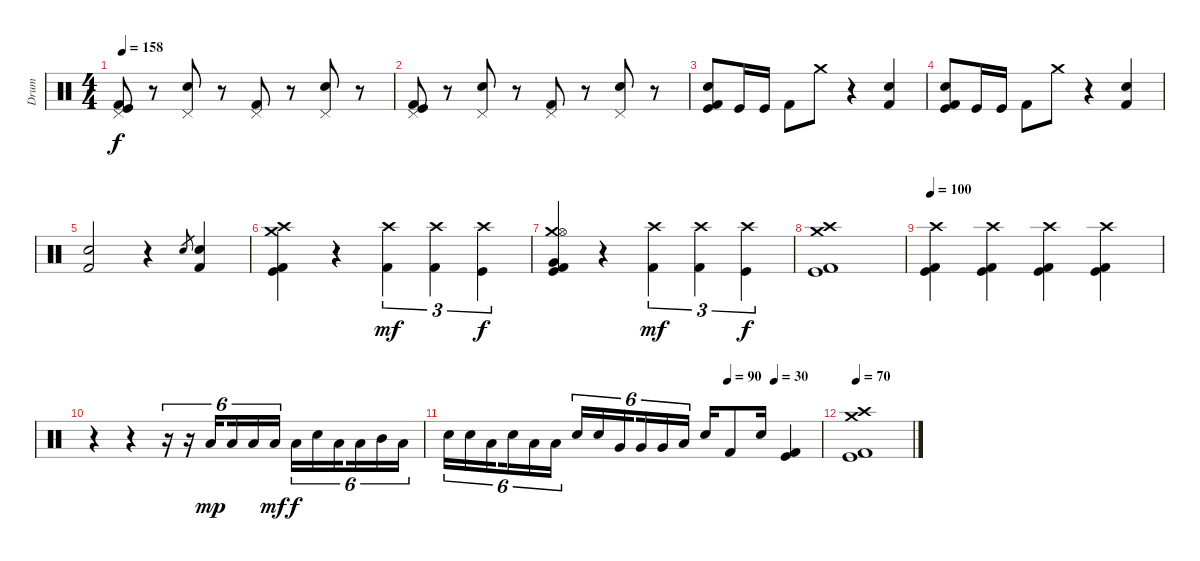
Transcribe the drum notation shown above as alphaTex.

\track ("Drum" "Drum") {instrument percussion}
\staff {score}
\articulation defaults
\ts (4 4)
\tempo 158
\clef neutral
\ks c
("Pedal Hi-Hat (hit)" "Kick (hit) 2" "Kick (hit)").8{dy f} r.8 ("Electric Snare (hit)" "Pedal Hi-Hat (hit)").8 r.8 ("Pedal Hi-Hat (hit)" "Kick (hit) 2").8 r.8 ("Electric Snare (hit)" "Pedal Hi-Hat (hit)").8 r.8 |
("Pedal Hi-Hat (hit)" "Kick (hit) 2" "Kick (hit)").8 r.8 ("Electric Snare (hit)" "Pedal Hi-Hat (hit)").8 r.8 ("Pedal Hi-Hat (hit)" "Kick (hit) 2").8 r.8 ("Electric Snare (hit)" "Pedal Hi-Hat (hit)").8 r.8 |
("Electric Snare (hit)" "Kick (hit) 2" "Kick (hit)").8 "Kick (hit)".16 "Kick (hit)".16 "Kick (hit) 2".8 "Crash medium (hit)".8 r.4 ("Kick (hit) 2" "Electric Snare (hit)").4 |
("Electric Snare (hit)" "Kick (hit) 2" "Kick (hit)").8 "Kick (hit)".16 "Kick (hit)".16 "Kick (hit) 2".8 "Crash medium (hit)".8 r.4 ("Kick (hit) 2" "Electric Snare (hit)").4 |
("Kick (hit) 2" "Electric Snare (hit)").2 r.4 "Electric Snare (hit)".8{gr} ("Kick (hit) 2" "Electric Snare (hit)").4 |
("Crash high (hit)" "Crash medium (hit)" "Kick (hit) 2" "Kick (hit)").4 r.4 ("Crash high (hit)" "Kick (hit) 2").4{tu (3 2) dy mf} ("Crash high (hit)" "Kick (hit) 2").4{tu (3 2)} ("Crash high (hit)" "Kick (hit)").4{tu (3 2) dy f} |
("Crash medium (hit)" "Hi-Hat (open)" "Very Low Tom (hit)" "Kick (hit)" "Kick (hit) 2").4 r.4 ("Crash high (hit)" "Kick (hit) 2").4{tu (3 2) dy mf} ("Crash high (hit)" "Kick (hit) 2").4{tu (3 2)} ("Crash high (hit)" "Kick (hit)").4{tu (3 2) dy f} |
("Crash high (hit)" "Crash medium (hit)" "Kick (hit) 2" "Kick (hit)").1 |
\tempo 100
("Crash high (hit)" "Kick (hit) 2" "Kick (hit)").4 ("Crash high (hit)" "Kick (hit) 2" "Kick (hit)").4 ("Crash high (hit)" "Kick (hit) 2" "Kick (hit)").4 ("Crash high (hit)" "Kick (hit) 2" "Kick (hit)").4 |
r.4 r.4 r.16{tu (6 4)} r.16{tu (6 4)} "Low Tom (hit)".16{tu (6 4) dy mp beam splitsecondary} "Low Tom (hit)".16{tu (6 4)} "Low Tom (hit)".16{tu (6 4)} "Low Tom (hit)".16{tu (6 4) dy mf} "Low Tom (hit)".16{tu (6 4) dy f} "Electric Snare (hit)".16{tu (6 4)} "Low Tom (hit)".16{tu (6 4) beam splitsecondary} "Low Tom (hit)".16{tu (6 4)} "Mid Tom (hit)".16{tu (6 4)} "Low Tom (hit)".16{tu (6 4)} |
\tempo (30 0.875)
\tempo (90 0.75)
"Electric Snare (hit)".16{tu (6 4)} "Electric Snare (hit)".16{tu (6 4)} "Low Tom (hit)".16{tu (6 4) beam splitsecondary} "Electric Snare (hit)".16{tu (6 4)} "Low Tom (hit)".16{tu (6 4)} "Low Tom (hit)".16{tu (6 4)} "Electric Snare (hit)".16{tu (6 4)} "Electric Snare (hit)".16{tu (6 4)} "Very Low Tom (hit)".16{tu (6 4) beam splitsecondary} "Very Low Tom (hit)".16{tu (6 4)} "Very Low Tom (hit)".16{tu (6 4)} "Low Tom (hit)".16{tu (6 4)} "Electric Snare (hit)".16 "Kick (hit) 2".8 "Electric Snare (hit)".16 ("Kick (hit)" "Kick (hit) 2").4 |
\tempo 70
("Kick (hit)" "Crash high (hit)" "Crash medium (hit)" "Kick (hit) 2").1
